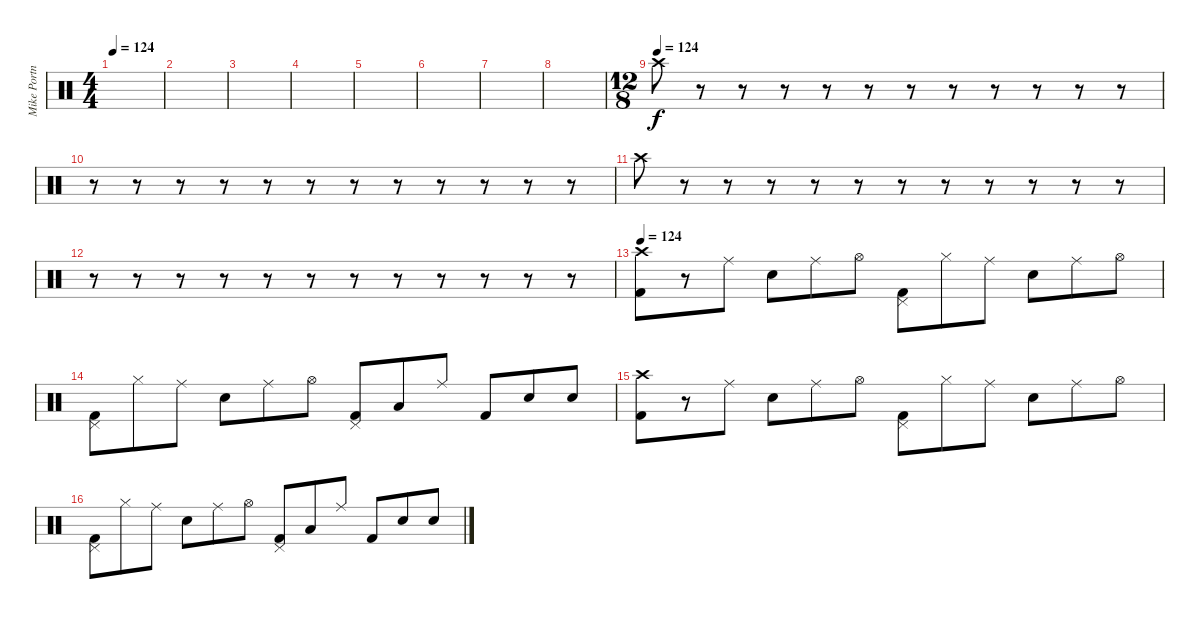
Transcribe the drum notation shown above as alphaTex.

\track ("Mike Portnoy - Drums" "Mike Portn") {instrument percussion}
\staff {score}
\articulation defaults
\ts (4 4)
\tempo 124
\tempo 96
\tempo 124
\clef neutral
\ks c
|
|
|
|
|
|
|
|
\ts (12 8)
\tempo (124)
"Crash high (hit)".8 r.8 r.8 r.8 r.8 r.8 r.8 r.8 r.8 r.8 r.8 r.8 |
r.8 r.8 r.8 r.8 r.8 r.8 r.8 r.8 r.8 r.8 r.8 r.8 |
"Crash high (hit)".8 r.8 r.8 r.8 r.8 r.8 r.8 r.8 r.8 r.8 r.8 r.8 |
r.8 r.8 r.8 r.8 r.8 r.8 r.8 r.8 r.8 r.8 r.8 r.8 |
\tempo 124
("Crash high (hit)" "Kick (hit) 2").8 r.8 "Ride (middle)".8 "Electric Snare (hit)".8 "Ride (middle)".8 "Hi-Hat (open)".8 ("Pedal Hi-Hat (hit)" "Kick (hit) 2").8 "Hi-Hat (closed)".8 "Ride (middle)".8 "Electric Snare (hit)".8 "Ride (middle)".8 "Hi-Hat (open)".8 |
("Pedal Hi-Hat (hit)" "Kick (hit) 2").8 "Hi-Hat (closed)".8 "Ride (middle)".8 "Electric Snare (hit)".8 "Ride (middle)".8 "Hi-Hat (open)".8 ("Pedal Hi-Hat (hit)" "Kick (hit) 2").8 "Low Floor Tom (hit)".8 "Ride (middle)".8 "Kick (hit) 2".8 "Electric Snare (hit)".8 "Electric Snare (hit)".8 |
("Crash high (hit)" "Kick (hit) 2").8 r.8 "Ride (middle)".8 "Electric Snare (hit)".8 "Ride (middle)".8 "Hi-Hat (open)".8 ("Pedal Hi-Hat (hit)" "Kick (hit) 2").8 "Hi-Hat (closed)".8 "Ride (middle)".8 "Electric Snare (hit)".8 "Ride (middle)".8 "Hi-Hat (open)".8 |
("Pedal Hi-Hat (hit)" "Kick (hit) 2").8 "Hi-Hat (closed)".8 "Ride (middle)".8 "Electric Snare (hit)".8 "Ride (middle)".8 "Hi-Hat (open)".8 ("Pedal Hi-Hat (hit)" "Kick (hit) 2").8 "Low Floor Tom (hit)".8 "Ride (middle)".8 "Kick (hit) 2".8 "Electric Snare (hit)".8 "Electric Snare (hit)".8
